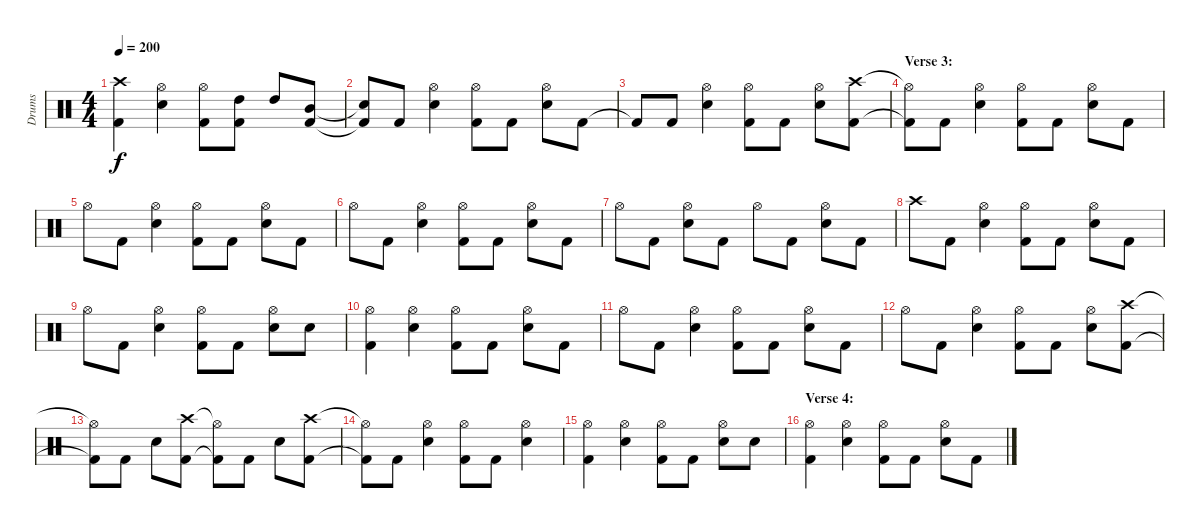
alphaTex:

\track ("Drums" "Drums") {instrument percussion}
\staff {score}
\articulation defaults
\ts (4 4)
\tempo 200
\clef neutral
\ks c
("Crash high (hit)" "Kick (hit) 2").4{dy f} ("Hi-Hat (open)" "Electric Snare (hit)").4 ("Hi-Hat (open)" "Kick (hit) 2").8 ("High Tom (hit)" "Kick (hit) 2").8 "High Tom (hit)".8 ("Mid Tom (hit)" "Kick (hit) 2").8 |
("Snare (hit)"{t} "Kick (hit) 2"{t}).8 "Kick (hit) 2".8 ("Hi-Hat (open)" "Electric Snare (hit)").4 ("Hi-Hat (open)" "Kick (hit) 2").8 "Kick (hit) 2".8 ("Hi-Hat (open)" "Electric Snare (hit)").8 "Kick (hit) 2".8 |
"Kick (hit) 2"{t}.8 "Kick (hit) 2".8 ("Hi-Hat (open)" "Electric Snare (hit)").4 ("Hi-Hat (open)" "Kick (hit) 2").8 "Kick (hit) 2".8 ("Hi-Hat (open)" "Electric Snare (hit)").8 ("Crash high (hit)" "Kick (hit) 2").8 |
\section ("" "Verse 3:")
("Hi-Hat (open)"{t} "Kick (hit) 2"{t}).8 "Kick (hit) 2".8 ("Hi-Hat (open)" "Electric Snare (hit)").4 ("Hi-Hat (open)" "Kick (hit) 2").8 "Kick (hit) 2".8 ("Hi-Hat (open)" "Electric Snare (hit)").8 "Kick (hit) 2".8 |
"Hi-Hat (open)".8 "Kick (hit) 2".8 ("Hi-Hat (open)" "Electric Snare (hit)").4 ("Hi-Hat (open)" "Kick (hit) 2").8 "Kick (hit) 2".8 ("Hi-Hat (open)" "Electric Snare (hit)").8 "Kick (hit) 2".8 |
"Hi-Hat (open)".8 "Kick (hit) 2".8 ("Hi-Hat (open)" "Electric Snare (hit)").4 ("Hi-Hat (open)" "Kick (hit) 2").8 "Kick (hit) 2".8 ("Hi-Hat (open)" "Electric Snare (hit)").8 "Kick (hit) 2".8 |
"Hi-Hat (open)".8 "Kick (hit) 2".8 ("Hi-Hat (open)" "Electric Snare (hit)").8 "Kick (hit) 2".8 "Hi-Hat (open)".8 "Kick (hit) 2".8 ("Hi-Hat (open)" "Electric Snare (hit)").8 "Kick (hit) 2".8 |
"Crash high (hit)".8 "Kick (hit) 2".8 ("Hi-Hat (open)" "Electric Snare (hit)").4 ("Hi-Hat (open)" "Kick (hit) 2").8 "Kick (hit) 2".8 ("Hi-Hat (open)" "Electric Snare (hit)").8 "Kick (hit) 2".8 |
"Hi-Hat (open)".8 "Kick (hit) 2".8 ("Hi-Hat (open)" "Electric Snare (hit)").4 ("Hi-Hat (open)" "Kick (hit) 2").8 "Kick (hit) 2".8 ("Hi-Hat (open)" "Electric Snare (hit)").8 "Electric Snare (hit)".8 |
("Hi-Hat (open)" "Kick (hit) 2").4 ("Hi-Hat (open)" "Electric Snare (hit)").4 ("Hi-Hat (open)" "Kick (hit) 2").8 "Kick (hit) 2".8 ("Hi-Hat (open)" "Electric Snare (hit)").8 "Kick (hit) 2".8 |
"Hi-Hat (open)".8 "Kick (hit) 2".8 ("Hi-Hat (open)" "Electric Snare (hit)").4 ("Hi-Hat (open)" "Kick (hit) 2").8 "Kick (hit) 2".8 ("Hi-Hat (open)" "Electric Snare (hit)").8 "Kick (hit) 2".8 |
"Hi-Hat (open)".8 "Kick (hit) 2".8 ("Hi-Hat (open)" "Electric Snare (hit)").4 ("Hi-Hat (open)" "Kick (hit) 2").8 "Kick (hit) 2".8 ("Hi-Hat (open)" "Electric Snare (hit)").8 ("Crash high (hit)" "Kick (hit) 2").8 |
("Hi-Hat (open)"{t} "Kick (hit) 2"{t}).8 "Kick (hit) 2".8 "Electric Snare (hit)".8 ("Crash high (hit)" "Kick (hit) 2").8 ("Hi-Hat (open)"{t} "Kick (hit) 2"{t}).8 "Kick (hit) 2".8 "Electric Snare (hit)".8 ("Crash high (hit)" "Kick (hit) 2").8 |
("Hi-Hat (open)"{t} "Kick (hit) 2"{t}).8 "Kick (hit) 2".8 ("Hi-Hat (open)" "Electric Snare (hit)").4 ("Hi-Hat (open)" "Kick (hit) 2").8 "Kick (hit) 2".8 ("Hi-Hat (open)" "Electric Snare (hit)").4 |
("Hi-Hat (open)" "Kick (hit) 2").4 ("Hi-Hat (open)" "Electric Snare (hit)").4 ("Hi-Hat (open)" "Kick (hit) 2").8 "Kick (hit) 2".8 ("Hi-Hat (open)" "Electric Snare (hit)").8 "Electric Snare (hit)".8 |
\section ("" "Verse 4:")
("Hi-Hat (open)" "Kick (hit) 2").4 ("Hi-Hat (open)" "Electric Snare (hit)").4 ("Hi-Hat (open)" "Kick (hit) 2").8 "Kick (hit) 2".8 ("Hi-Hat (open)" "Electric Snare (hit)").8 "Kick (hit) 2".8
